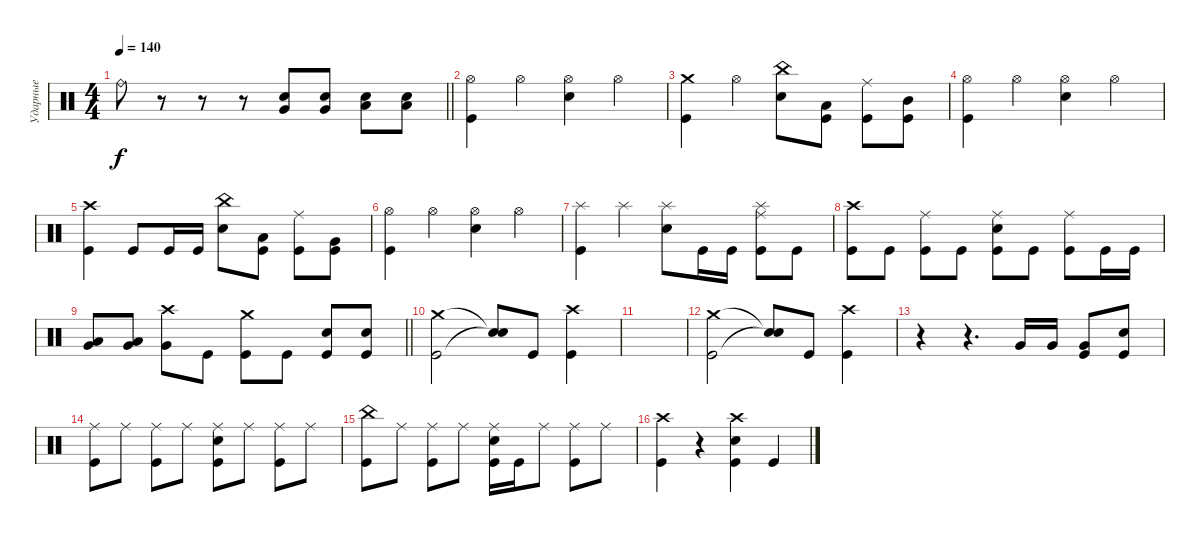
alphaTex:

\track ("Ударные" "Ударные") {instrument percussion}
\staff {score}
\articulation defaults
\ts (4 4)
\tempo 140
\clef neutral
\barLineRight lightlight
\ks c "Ride (bell)".8{dy f}
r.8 r.8 r.8 ("Electric Snare (hit)" "Very Low Tom (hit)").8 ("Electric Snare (hit)" "Very Low Tom (hit)").8 ("Electric Snare (hit)" "Low Floor Tom (hit)").8 ("Electric Snare (hit)" "Low Floor Tom (hit)").8 |
\section ("" " ")
("Hi-Hat (open)" "Kick (hit)").4 "Hi-Hat (open)".4 ("Hi-Hat (open)" "Electric Snare (hit)").4 "Hi-Hat (open)".4 |
("Crash medium (hit)" "Kick (hit)").4 "Hi-Hat (open)".4 ("China (hit)" "Electric Snare (hit)").8 ("Low Tom (hit)" "Kick (hit)").8 ("Ride (middle)" "Kick (hit)").8 ("Mid Tom (hit)" "Kick (hit)").8 |
("Hi-Hat (open)" "Kick (hit)").4 "Hi-Hat (open)".4 ("Hi-Hat (open)" "Electric Snare (hit)").4 "Hi-Hat (open)".4 |
("Crash high (hit)" "Kick (hit)").4 "Kick (hit)".8 "Kick (hit)".16 "Kick (hit)".16 ("China (hit)" "Electric Snare (hit)").8 ("Low Tom (hit)" "Kick (hit)").8 ("Ride (middle)" "Kick (hit)").8 ("Very Low Tom (hit)" "Kick (hit)").8 |
("Hi-Hat (open)" "Kick (hit)").4 "Hi-Hat (open)".4 ("Hi-Hat (open)" "Electric Snare (hit)").4 "Hi-Hat (open)".4 |
("Splash (hit)" "Kick (hit)").4 "Splash (hit)".4 ("Splash (hit)" "Electric Snare (hit)").8 "Kick (hit)".16 "Kick (hit)".16 ("Splash (hit)" "Ride (middle)" "Kick (hit)").8 "Kick (hit)".8 |
("Crash high (hit)" "Kick (hit)").8 "Kick (hit)".8 ("Ride (middle)" "Kick (hit)").8 "Kick (hit)".8 ("Ride (middle)" "Electric Snare (hit)" "Kick (hit)").8 "Kick (hit)".8 ("Ride (middle)" "Kick (hit)").8 "Kick (hit)".16 "Kick (hit)".16 |
\barLineRight lightlight
("Very Low Tom (hit)" "Low Tom (hit)").8 ("Very Low Tom (hit)" "Low Tom (hit)").8 ("Crash high (hit)" "Very Low Tom (hit)").8 "Kick (hit)".8 ("Crash medium (hit)" "Kick (hit)").8 "Kick (hit)".8 ("Electric Snare (hit)" "Kick (hit)").8 ("Electric Snare (hit)" "Kick (hit)").8 |
("Crash medium (hit)" "Kick (hit)").2 ("Snare (hit)"{t} "Snare (hit)"{t}).8 "Kick (hit)".8 ("Crash high (hit)" "Kick (hit)").4 |
|
("Crash medium (hit)" "Kick (hit)").2 ("Snare (hit)"{t} "Snare (hit)"{t}).8 "Kick (hit)".8 ("Crash high (hit)" "Kick (hit)").4 |
r.4 r.4{d} "Very Low Tom (hit)".16 "Very Low Tom (hit)".16 ("Very Low Tom (hit)" "Kick (hit)").8 ("Electric Snare (hit)" "Kick (hit)").8 |
("Ride (middle)" "Kick (hit)").8 "Ride (middle)".8 ("Ride (middle)" "Kick (hit)").8 "Ride (middle)".8 ("Ride (middle)" "Electric Snare (hit)" "Kick (hit)").8 "Ride (middle)".8 ("Ride (middle)" "Kick (hit)").8 "Ride (middle)".8 |
("China (hit)" "Kick (hit)").8 "Ride (middle)".8 ("Ride (middle)" "Kick (hit)").8 "Ride (middle)".8 ("Ride (middle)" "Electric Snare (hit)" "Kick (hit)").16 "Kick (hit)".16 "Ride (middle)".8 ("Ride (middle)" "Kick (hit)").8 "Ride (middle)".8 |
("Crash high (hit)" "Kick (hit)").4 r.4 ("Crash high (hit)" "Electric Snare (hit)" "Kick (hit)").4 "Kick (hit)".4
